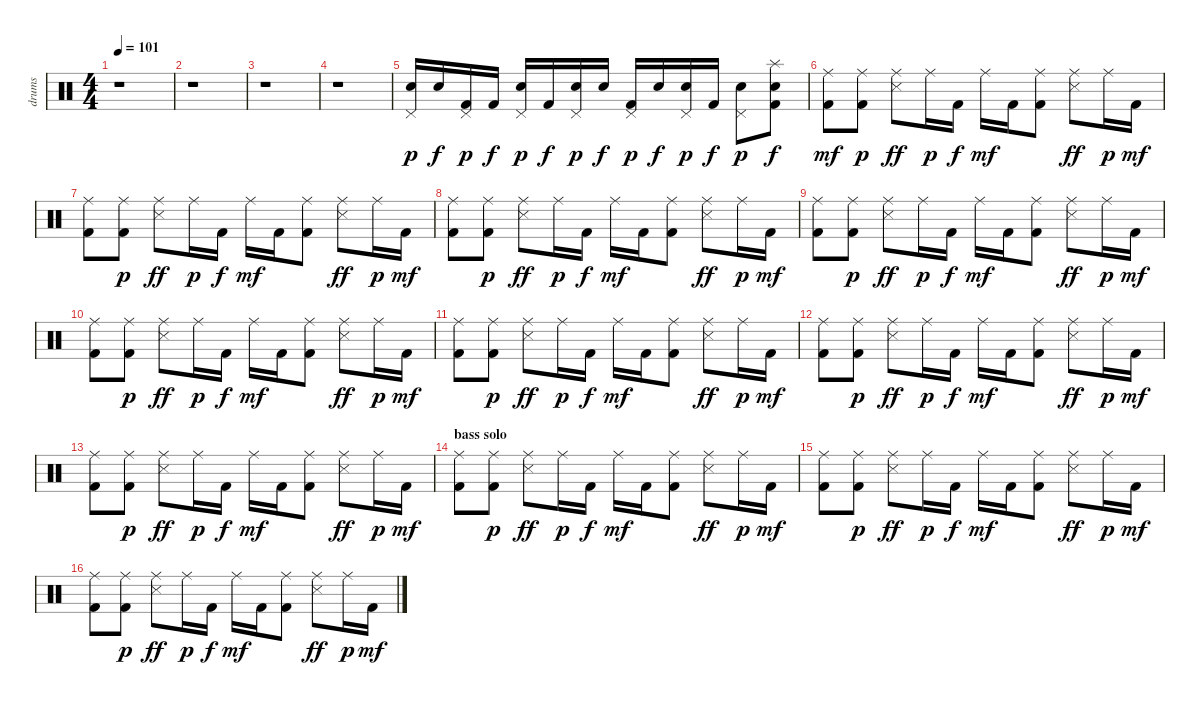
\track ("drums" "drums") {instrument percussion}
\staff {score}
\articulation defaults
\ts (4 4)
\tempo 101
\clef neutral
\ks c
r.1{dy p} |
r.1 |
r.1 |
r.1 |
("Pedal Hi-Hat (hit)" "Snare (hit) 2").16 "Snare (hit) 2".16{dy f} ("Pedal Hi-Hat (hit)" "Kick (hit) 2").16{dy p} "Kick (hit) 2".16{dy f} ("Pedal Hi-Hat (hit)" "Snare (hit) 2").16{dy p} "Kick (hit) 2".16{dy f} ("Pedal Hi-Hat (hit)" "Snare (hit) 2").16{dy p} "Snare (hit) 2".16{dy f} ("Pedal Hi-Hat (hit)" "Kick (hit) 2").16{dy p} "Snare (hit) 2".16{dy f} ("Pedal Hi-Hat (hit)" "Snare (hit) 2").16{dy p} "Kick (hit) 2".16{dy f} ("Pedal Hi-Hat (hit)" "Snare (hit) 2").8{dy p} ("Splash (hit)" "Snare (hit) 2" "Kick (hit) 2").8{dy f} |
("Ride (middle)" "Kick (hit) 2").8{dy mf} ("Ride (middle)" "Kick (hit) 2").8{dy p} ("Ride (middle)" "Snare (side stick) 3").8{dy ff} "Ride (middle)".16{dy p} "Kick (hit) 2".16{dy f} "Ride (middle)".16{dy mf} "Kick (hit) 2".16 ("Ride (middle)" "Kick (hit) 2").8 ("Ride (middle)" "Snare (side stick) 3").8{dy ff} "Ride (middle)".16{dy p} "Kick (hit) 2".16{dy mf} |
("Ride (middle)" "Kick (hit) 2").8 ("Ride (middle)" "Kick (hit) 2").8{dy p} ("Ride (middle)" "Snare (side stick) 3").8{dy ff} "Ride (middle)".16{dy p} "Kick (hit) 2".16{dy f} "Ride (middle)".16{dy mf} "Kick (hit) 2".16 ("Ride (middle)" "Kick (hit) 2").8 ("Ride (middle)" "Snare (side stick) 3").8{dy ff} "Ride (middle)".16{dy p} "Kick (hit) 2".16{dy mf} |
("Ride (middle)" "Kick (hit) 2").8 ("Ride (middle)" "Kick (hit) 2").8{dy p} ("Ride (middle)" "Snare (side stick) 3").8{dy ff} "Ride (middle)".16{dy p} "Kick (hit) 2".16{dy f} "Ride (middle)".16{dy mf} "Kick (hit) 2".16 ("Ride (middle)" "Kick (hit) 2").8 ("Ride (middle)" "Snare (side stick) 3").8{dy ff} "Ride (middle)".16{dy p} "Kick (hit) 2".16{dy mf} |
("Ride (middle)" "Kick (hit) 2").8 ("Ride (middle)" "Kick (hit) 2").8{dy p} ("Ride (middle)" "Snare (side stick) 3").8{dy ff} "Ride (middle)".16{dy p} "Kick (hit) 2".16{dy f} "Ride (middle)".16{dy mf} "Kick (hit) 2".16 ("Ride (middle)" "Kick (hit) 2").8 ("Ride (middle)" "Snare (side stick) 3").8{dy ff} "Ride (middle)".16{dy p} "Kick (hit) 2".16{dy mf} |
("Ride (middle)" "Kick (hit) 2").8 ("Ride (middle)" "Kick (hit) 2").8{dy p} ("Ride (middle)" "Snare (side stick) 3").8{dy ff} "Ride (middle)".16{dy p} "Kick (hit) 2".16{dy f} "Ride (middle)".16{dy mf} "Kick (hit) 2".16 ("Ride (middle)" "Kick (hit) 2").8 ("Ride (middle)" "Snare (side stick) 3").8{dy ff} "Ride (middle)".16{dy p} "Kick (hit) 2".16{dy mf} |
("Ride (middle)" "Kick (hit) 2").8 ("Ride (middle)" "Kick (hit) 2").8{dy p} ("Ride (middle)" "Snare (side stick) 3").8{dy ff} "Ride (middle)".16{dy p} "Kick (hit) 2".16{dy f} "Ride (middle)".16{dy mf} "Kick (hit) 2".16 ("Ride (middle)" "Kick (hit) 2").8 ("Ride (middle)" "Snare (side stick) 3").8{dy ff} "Ride (middle)".16{dy p} "Kick (hit) 2".16{dy mf} |
("Ride (middle)" "Kick (hit) 2").8 ("Ride (middle)" "Kick (hit) 2").8{dy p} ("Ride (middle)" "Snare (side stick) 3").8{dy ff} "Ride (middle)".16{dy p} "Kick (hit) 2".16{dy f} "Ride (middle)".16{dy mf} "Kick (hit) 2".16 ("Ride (middle)" "Kick (hit) 2").8 ("Ride (middle)" "Snare (side stick) 3").8{dy ff} "Ride (middle)".16{dy p} "Kick (hit) 2".16{dy mf} |
("Ride (middle)" "Kick (hit) 2").8 ("Ride (middle)" "Kick (hit) 2").8{dy p} ("Ride (middle)" "Snare (side stick) 3").8{dy ff} "Ride (middle)".16{dy p} "Kick (hit) 2".16{dy f} "Ride (middle)".16{dy mf} "Kick (hit) 2".16 ("Ride (middle)" "Kick (hit) 2").8 ("Ride (middle)" "Snare (side stick) 3").8{dy ff} "Ride (middle)".16{dy p} "Kick (hit) 2".16{dy mf} |
\section ("" "bass solo")
("Ride (middle)" "Kick (hit) 2").8 ("Ride (middle)" "Kick (hit) 2").8{dy p} ("Ride (middle)" "Snare (side stick) 3").8{dy ff} "Ride (middle)".16{dy p} "Kick (hit) 2".16{dy f} "Ride (middle)".16{dy mf} "Kick (hit) 2".16 ("Ride (middle)" "Kick (hit) 2").8 ("Ride (middle)" "Snare (side stick) 3").8{dy ff} "Ride (middle)".16{dy p} "Kick (hit) 2".16{dy mf} |
("Ride (middle)" "Kick (hit) 2").8 ("Ride (middle)" "Kick (hit) 2").8{dy p} ("Ride (middle)" "Snare (side stick) 3").8{dy ff} "Ride (middle)".16{dy p} "Kick (hit) 2".16{dy f} "Ride (middle)".16{dy mf} "Kick (hit) 2".16 ("Ride (middle)" "Kick (hit) 2").8 ("Ride (middle)" "Snare (side stick) 3").8{dy ff} "Ride (middle)".16{dy p} "Kick (hit) 2".16{dy mf} |
("Ride (middle)" "Kick (hit) 2").8 ("Ride (middle)" "Kick (hit) 2").8{dy p} ("Ride (middle)" "Snare (side stick) 3").8{dy ff} "Ride (middle)".16{dy p} "Kick (hit) 2".16{dy f} "Ride (middle)".16{dy mf} "Kick (hit) 2".16 ("Ride (middle)" "Kick (hit) 2").8 ("Ride (middle)" "Snare (side stick) 3").8{dy ff} "Ride (middle)".16{dy p} "Kick (hit) 2".16{dy mf}
